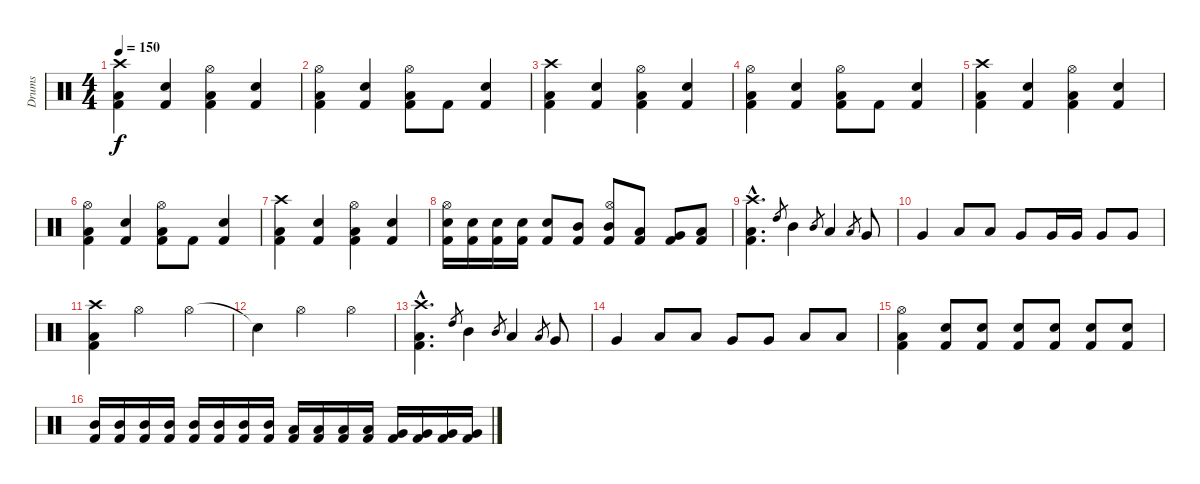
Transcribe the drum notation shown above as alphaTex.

\track ("Drums" "Drums") {instrument percussion}
\staff {score}
\articulation defaults
\ts (4 4)
\tempo 150
\clef neutral
\ks c
("Crash high (hit)" "Low Floor Tom (hit)" "Kick (hit) 2").4{dy f} ("Snare (hit) 2" "Kick (hit) 2").4 ("Hi-Hat (open)" "Low Floor Tom (hit)" "Kick (hit) 2").4 ("Snare (hit) 2" "Kick (hit) 2").4 |
("Hi-Hat (open)" "Low Floor Tom (hit)" "Kick (hit) 2").4 ("Snare (hit) 2" "Kick (hit) 2").4 ("Hi-Hat (open)" "Low Floor Tom (hit)" "Kick (hit) 2").8 "Kick (hit) 2".8 ("Snare (hit) 2" "Kick (hit) 2").4 |
("Crash high (hit)" "Low Floor Tom (hit)" "Kick (hit) 2").4 ("Snare (hit) 2" "Kick (hit) 2").4 ("Hi-Hat (open)" "Low Floor Tom (hit)" "Kick (hit) 2").4 ("Snare (hit) 2" "Kick (hit) 2").4 |
("Hi-Hat (open)" "Low Floor Tom (hit)" "Kick (hit) 2").4 ("Snare (hit) 2" "Kick (hit) 2").4 ("Hi-Hat (open)" "Low Floor Tom (hit)" "Kick (hit) 2").8 "Kick (hit) 2".8 ("Snare (hit) 2" "Kick (hit) 2").4 |
("Crash high (hit)" "Low Floor Tom (hit)" "Kick (hit) 2").4 ("Snare (hit) 2" "Kick (hit) 2").4 ("Hi-Hat (open)" "Low Floor Tom (hit)" "Kick (hit) 2").4 ("Snare (hit) 2" "Kick (hit) 2").4 |
("Hi-Hat (open)" "Low Floor Tom (hit)" "Kick (hit) 2").4 ("Snare (hit) 2" "Kick (hit) 2").4 ("Hi-Hat (open)" "Low Floor Tom (hit)" "Kick (hit) 2").8 "Kick (hit) 2".8 ("Snare (hit) 2" "Kick (hit) 2").4 |
("Crash high (hit)" "Low Floor Tom (hit)" "Kick (hit) 2").4 ("Snare (hit) 2" "Kick (hit) 2").4 ("Hi-Hat (open)" "Low Floor Tom (hit)" "Kick (hit) 2").4 ("Snare (hit) 2" "Kick (hit) 2").4 |
("Hi-Hat (open)" "Snare (hit) 2" "Kick (hit) 2").16 ("Snare (hit) 2" "Kick (hit) 2").16 ("Snare (hit) 2" "Kick (hit) 2").16 ("Snare (hit) 2" "Kick (hit) 2").16 ("Snare (hit) 2" "Kick (hit) 2").8 ("Mid Tom (hit)" "Kick (hit) 2").8 ("Hi-Hat (open)" "Mid Tom (hit)" "Kick (hit) 2").8 ("Low Tom (hit)" "Kick (hit) 2").8 ("Very Low Tom (hit)" "Kick (hit) 2").8 ("Low Floor Tom (hit)" "Kick (hit) 2").8 |
("Crash high (hit)"{hac} "Low Floor Tom (hit)"{hac} "Kick (hit) 2"{hac}).4{d} "High Tom (hit)".8{gr} "Mid Tom (hit)".4 "Mid Tom (hit)".8{gr} "Low Tom (hit)".4 "Low Tom (hit)".8{gr} "Very Low Tom (hit)".8 |
"Very Low Tom (hit)".4 "Low Floor Tom (hit)".8 "Low Floor Tom (hit)".8 "Very Low Tom (hit)".8 "Very Low Tom (hit)".16 "Very Low Tom (hit)".16 "Very Low Tom (hit)".8 "Very Low Tom (hit)".8 |
("Crash high (hit)" "Low Floor Tom (hit)" "Kick (hit) 2").4 "Hi-Hat (open)".2 "Hi-Hat (open)".4 |
"Snare (hit)"{t}.4 "Hi-Hat (open)".2 "Hi-Hat (open)".4 |
("Crash high (hit)"{hac} "Low Floor Tom (hit)"{hac} "Kick (hit) 2"{hac}).4{d} "High Tom (hit)".8{gr} "Mid Tom (hit)".4 "Mid Tom (hit)".8{gr} "Low Tom (hit)".4 "Low Tom (hit)".8{gr} "Very Low Tom (hit)".8 |
"Very Low Tom (hit)".4 "Low Floor Tom (hit)".8 "Low Floor Tom (hit)".8 "Very Low Tom (hit)".8 "Very Low Tom (hit)".8 "Low Floor Tom (hit)".8 "Low Floor Tom (hit)".8 |
("Hi-Hat (open)" "Low Floor Tom (hit)" "Kick (hit) 2").4 ("Snare (hit) 2" "Kick (hit) 2").8{volume 7} ("Snare (hit) 2" "Kick (hit) 2").8{volume 13} ("Snare (hit) 2" "Kick (hit) 2").8 ("Snare (hit) 2" "Kick (hit) 2").8 ("Snare (hit) 2" "Kick (hit) 2").8 ("Snare (hit) 2" "Kick (hit) 2").8 |
("Mid Tom (hit)" "Kick (hit) 2").16 ("Mid Tom (hit)" "Kick (hit) 2").16 ("Mid Tom (hit)" "Kick (hit) 2").16 ("Mid Tom (hit)" "Kick (hit) 2").16 ("Mid Tom (hit)" "Kick (hit) 2").16 ("Mid Tom (hit)" "Kick (hit) 2").16 ("Mid Tom (hit)" "Kick (hit) 2").16 ("Mid Tom (hit)" "Kick (hit) 2").16 ("Low Tom (hit)" "Kick (hit) 2").16 ("Low Tom (hit)" "Kick (hit) 2").16 ("Low Tom (hit)" "Kick (hit) 2").16 ("Low Tom (hit)" "Kick (hit) 2").16 ("Very Low Tom (hit)" "Kick (hit) 2").16 ("Very Low Tom (hit)" "Kick (hit) 2").16 ("Very Low Tom (hit)" "Kick (hit) 2").16 ("Very Low Tom (hit)" "Kick (hit) 2").16
